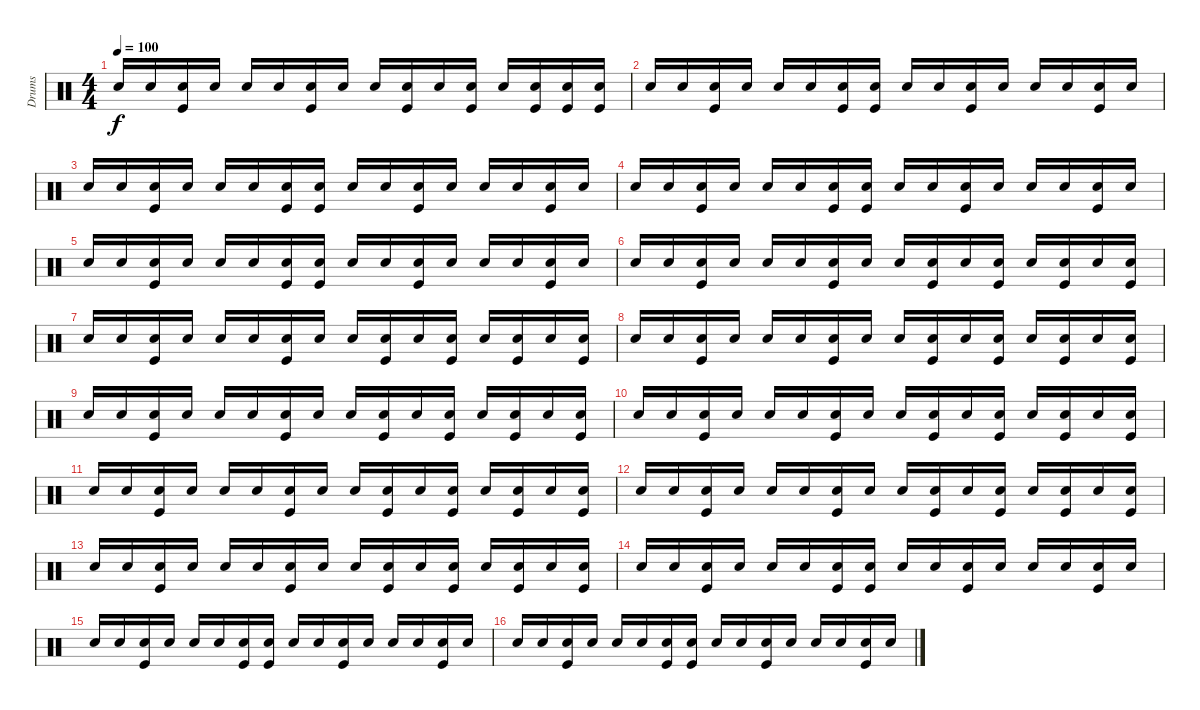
\track ("Drums" "Drums") {instrument percussion}
\staff {score}
\articulation defaults
\ts (4 4)
\tempo 100
\clef neutral
\ks c "Snare (hit) 2".16{dy f} "Snare (hit) 2".16
("Snare (hit) 2" "Kick (hit)").16 "Snare (hit) 2".16 "Snare (hit) 2".16 "Snare (hit) 2".16 ("Snare (hit) 2" "Kick (hit)").16 "Snare (hit) 2".16 "Snare (hit) 2".16 ("Snare (hit) 2" "Kick (hit)").16 "Snare (hit) 2".16 ("Snare (hit) 2" "Kick (hit)").16 "Snare (hit) 2".16 ("Snare (hit) 2" "Kick (hit)").16 ("Snare (hit) 2" "Kick (hit)").16 ("Snare (hit) 2" "Kick (hit)").16 |
"Snare (hit) 2".16 "Snare (hit) 2".16 ("Snare (hit) 2" "Kick (hit)").16 "Snare (hit) 2".16 "Snare (hit) 2".16 "Snare (hit) 2".16 ("Snare (hit) 2" "Kick (hit)").16 ("Snare (hit) 2" "Kick (hit)").16 "Snare (hit) 2".16 "Snare (hit) 2".16 ("Snare (hit) 2" "Kick (hit)").16 "Snare (hit) 2".16 "Snare (hit) 2".16 "Snare (hit) 2".16 ("Snare (hit) 2" "Kick (hit)").16 "Snare (hit) 2".16 |
"Snare (hit) 2".16 "Snare (hit) 2".16 ("Snare (hit) 2" "Kick (hit)").16 "Snare (hit) 2".16 "Snare (hit) 2".16 "Snare (hit) 2".16 ("Snare (hit) 2" "Kick (hit)").16 ("Snare (hit) 2" "Kick (hit)").16 "Snare (hit) 2".16 "Snare (hit) 2".16 ("Snare (hit) 2" "Kick (hit)").16 "Snare (hit) 2".16 "Snare (hit) 2".16 "Snare (hit) 2".16 ("Snare (hit) 2" "Kick (hit)").16 "Snare (hit) 2".16 |
"Snare (hit) 2".16 "Snare (hit) 2".16 ("Snare (hit) 2" "Kick (hit)").16 "Snare (hit) 2".16 "Snare (hit) 2".16 "Snare (hit) 2".16 ("Snare (hit) 2" "Kick (hit)").16 ("Snare (hit) 2" "Kick (hit)").16 "Snare (hit) 2".16 "Snare (hit) 2".16 ("Snare (hit) 2" "Kick (hit)").16 "Snare (hit) 2".16 "Snare (hit) 2".16 "Snare (hit) 2".16 ("Snare (hit) 2" "Kick (hit)").16 "Snare (hit) 2".16 |
"Snare (hit) 2".16 "Snare (hit) 2".16 ("Snare (hit) 2" "Kick (hit)").16 "Snare (hit) 2".16 "Snare (hit) 2".16 "Snare (hit) 2".16 ("Snare (hit) 2" "Kick (hit)").16 ("Snare (hit) 2" "Kick (hit)").16 "Snare (hit) 2".16 "Snare (hit) 2".16 ("Snare (hit) 2" "Kick (hit)").16 "Snare (hit) 2".16 "Snare (hit) 2".16 "Snare (hit) 2".16 ("Snare (hit) 2" "Kick (hit)").16 "Snare (hit) 2".16 |
"Snare (hit) 2".16 "Snare (hit) 2".16 ("Snare (hit) 2" "Kick (hit)").16 "Snare (hit) 2".16 "Snare (hit) 2".16 "Snare (hit) 2".16 ("Snare (hit) 2" "Kick (hit)").16 "Snare (hit) 2".16 "Snare (hit) 2".16 ("Snare (hit) 2" "Kick (hit)").16 "Snare (hit) 2".16 ("Snare (hit) 2" "Kick (hit)").16 "Snare (hit) 2".16 ("Snare (hit) 2" "Kick (hit)").16 "Snare (hit) 2".16 ("Snare (hit) 2" "Kick (hit)").16 |
"Snare (hit) 2".16 "Snare (hit) 2".16 ("Snare (hit) 2" "Kick (hit)").16 "Snare (hit) 2".16 "Snare (hit) 2".16 "Snare (hit) 2".16 ("Snare (hit) 2" "Kick (hit)").16 "Snare (hit) 2".16 "Snare (hit) 2".16 ("Snare (hit) 2" "Kick (hit)").16 "Snare (hit) 2".16 ("Snare (hit) 2" "Kick (hit)").16 "Snare (hit) 2".16 ("Snare (hit) 2" "Kick (hit)").16 "Snare (hit) 2".16 ("Snare (hit) 2" "Kick (hit)").16 |
"Snare (hit) 2".16 "Snare (hit) 2".16 ("Snare (hit) 2" "Kick (hit)").16 "Snare (hit) 2".16 "Snare (hit) 2".16 "Snare (hit) 2".16 ("Snare (hit) 2" "Kick (hit)").16 "Snare (hit) 2".16 "Snare (hit) 2".16 ("Snare (hit) 2" "Kick (hit)").16 "Snare (hit) 2".16 ("Snare (hit) 2" "Kick (hit)").16 "Snare (hit) 2".16 ("Snare (hit) 2" "Kick (hit)").16 "Snare (hit) 2".16 ("Snare (hit) 2" "Kick (hit)").16 |
"Snare (hit) 2".16 "Snare (hit) 2".16 ("Snare (hit) 2" "Kick (hit)").16 "Snare (hit) 2".16 "Snare (hit) 2".16 "Snare (hit) 2".16 ("Snare (hit) 2" "Kick (hit)").16 "Snare (hit) 2".16 "Snare (hit) 2".16 ("Snare (hit) 2" "Kick (hit)").16 "Snare (hit) 2".16 ("Snare (hit) 2" "Kick (hit)").16 "Snare (hit) 2".16 ("Snare (hit) 2" "Kick (hit)").16 "Snare (hit) 2".16 ("Snare (hit) 2" "Kick (hit)").16 |
"Snare (hit) 2".16 "Snare (hit) 2".16 ("Snare (hit) 2" "Kick (hit)").16 "Snare (hit) 2".16 "Snare (hit) 2".16 "Snare (hit) 2".16 ("Snare (hit) 2" "Kick (hit)").16 "Snare (hit) 2".16 "Snare (hit) 2".16 ("Snare (hit) 2" "Kick (hit)").16 "Snare (hit) 2".16 ("Snare (hit) 2" "Kick (hit)").16 "Snare (hit) 2".16 ("Snare (hit) 2" "Kick (hit)").16 "Snare (hit) 2".16 ("Snare (hit) 2" "Kick (hit)").16 |
"Snare (hit) 2".16 "Snare (hit) 2".16 ("Snare (hit) 2" "Kick (hit)").16 "Snare (hit) 2".16 "Snare (hit) 2".16 "Snare (hit) 2".16 ("Snare (hit) 2" "Kick (hit)").16 "Snare (hit) 2".16 "Snare (hit) 2".16 ("Snare (hit) 2" "Kick (hit)").16 "Snare (hit) 2".16 ("Snare (hit) 2" "Kick (hit)").16 "Snare (hit) 2".16 ("Snare (hit) 2" "Kick (hit)").16 "Snare (hit) 2".16 ("Snare (hit) 2" "Kick (hit)").16 |
"Snare (hit) 2".16 "Snare (hit) 2".16 ("Snare (hit) 2" "Kick (hit)").16 "Snare (hit) 2".16 "Snare (hit) 2".16 "Snare (hit) 2".16 ("Snare (hit) 2" "Kick (hit)").16 "Snare (hit) 2".16 "Snare (hit) 2".16 ("Snare (hit) 2" "Kick (hit)").16 "Snare (hit) 2".16 ("Snare (hit) 2" "Kick (hit)").16 "Snare (hit) 2".16 ("Snare (hit) 2" "Kick (hit)").16 "Snare (hit) 2".16 ("Snare (hit) 2" "Kick (hit)").16 |
"Snare (hit) 2".16 "Snare (hit) 2".16 ("Snare (hit) 2" "Kick (hit)").16 "Snare (hit) 2".16 "Snare (hit) 2".16 "Snare (hit) 2".16 ("Snare (hit) 2" "Kick (hit)").16 "Snare (hit) 2".16 "Snare (hit) 2".16 ("Snare (hit) 2" "Kick (hit)").16 "Snare (hit) 2".16 ("Snare (hit) 2" "Kick (hit)").16 "Snare (hit) 2".16 ("Snare (hit) 2" "Kick (hit)").16 "Snare (hit) 2".16 ("Snare (hit) 2" "Kick (hit)").16 |
"Snare (hit) 2".16 "Snare (hit) 2".16 ("Snare (hit) 2" "Kick (hit)").16 "Snare (hit) 2".16 "Snare (hit) 2".16 "Snare (hit) 2".16 ("Snare (hit) 2" "Kick (hit)").16 ("Snare (hit) 2" "Kick (hit)").16 "Snare (hit) 2".16 "Snare (hit) 2".16 ("Snare (hit) 2" "Kick (hit)").16 "Snare (hit) 2".16 "Snare (hit) 2".16 "Snare (hit) 2".16 ("Snare (hit) 2" "Kick (hit)").16 "Snare (hit) 2".16 |
"Snare (hit) 2".16 "Snare (hit) 2".16 ("Snare (hit) 2" "Kick (hit)").16 "Snare (hit) 2".16 "Snare (hit) 2".16 "Snare (hit) 2".16 ("Snare (hit) 2" "Kick (hit)").16 ("Snare (hit) 2" "Kick (hit)").16 "Snare (hit) 2".16 "Snare (hit) 2".16 ("Snare (hit) 2" "Kick (hit)").16 "Snare (hit) 2".16 "Snare (hit) 2".16 "Snare (hit) 2".16 ("Snare (hit) 2" "Kick (hit)").16 "Snare (hit) 2".16 |
"Snare (hit) 2".16{volume 0} "Snare (hit) 2".16 ("Snare (hit) 2" "Kick (hit)").16 "Snare (hit) 2".16 "Snare (hit) 2".16 "Snare (hit) 2".16 ("Snare (hit) 2" "Kick (hit)").16 ("Snare (hit) 2" "Kick (hit)").16 "Snare (hit) 2".16 "Snare (hit) 2".16 ("Snare (hit) 2" "Kick (hit)").16 "Snare (hit) 2".16 "Snare (hit) 2".16 "Snare (hit) 2".16 ("Snare (hit) 2" "Kick (hit)").16 "Snare (hit) 2".16
